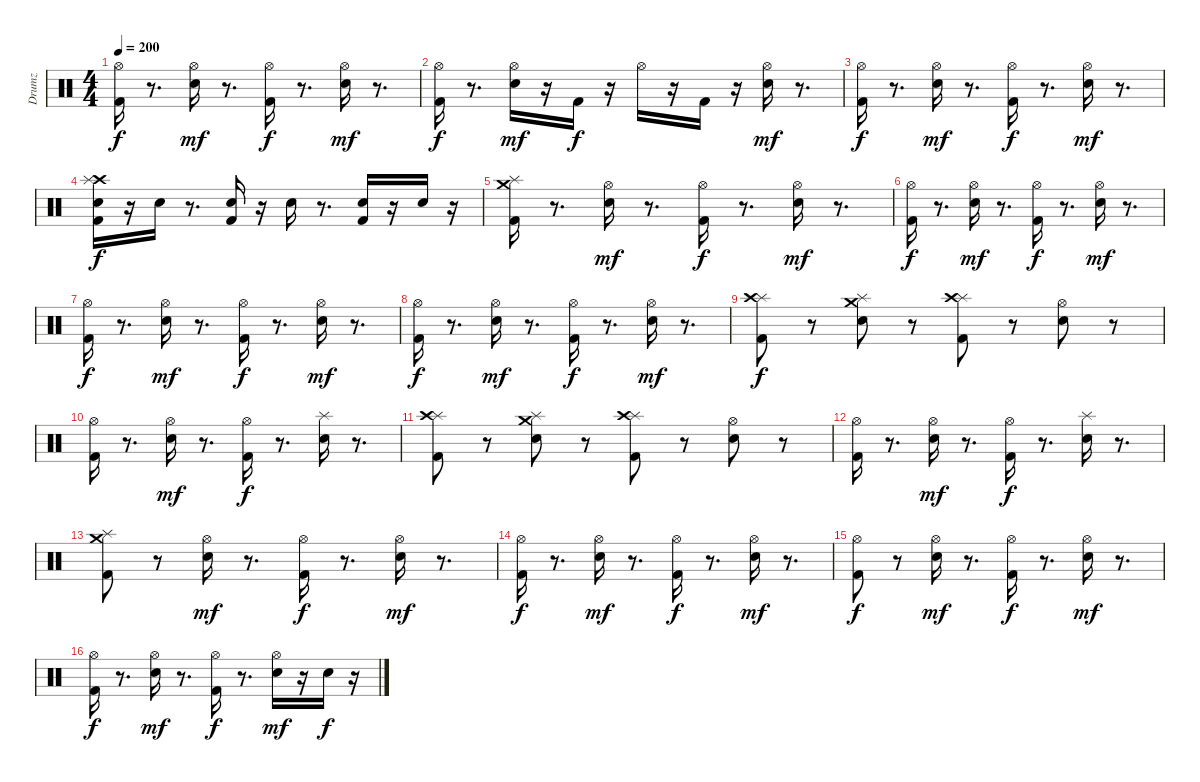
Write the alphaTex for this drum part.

\track ("Drumz" "Drumz") {instrument percussion}
\staff {score}
\articulation defaults
\ts (4 4)
\tempo 200
\clef neutral
\ks c
("Kick (hit) 2" "Hi-Hat (open)").16{dy f} r.8{d} ("Snare (hit) 2" "Hi-Hat (open)").16{dy mf} r.8{d} ("Hi-Hat (open)" "Kick (hit) 2").16{dy f} r.8{d} ("Snare (hit) 2" "Hi-Hat (open)").16{dy mf} r.8{d} |
("Kick (hit) 2" "Hi-Hat (open)").16{dy f} r.8{d} ("Snare (hit) 2" "Hi-Hat (open)").16{dy mf} r.16 "Kick (hit) 2".16{dy f} r.16 "Hi-Hat (open)".16 r.16 "Kick (hit) 2".16 r.16 ("Snare (hit) 2" "Hi-Hat (open)").16{dy mf} r.8{d} |
("Kick (hit) 2" "Hi-Hat (open)").16{dy f} r.8{d} ("Snare (hit) 2" "Hi-Hat (open)").16{dy mf} r.8{d} ("Hi-Hat (open)" "Kick (hit) 2").16{dy f} r.8{d} ("Snare (hit) 2" "Hi-Hat (open)").16{dy mf} r.8{d} |
("Snare (hit) 2" "Kick (hit) 2" "Crash high (hit)" "Splash (hit)").16{dy f} r.16 "Snare (hit) 2".16 r.8{d} ("Snare (hit) 2" "Kick (hit) 2").16 r.16 "Snare (hit) 2".16 r.8{d} ("Snare (hit) 2" "Kick (hit) 2").16 r.16 "Snare (hit) 2".16 r.16 |
("Kick (hit) 2" "Splash (hit)" "Crash medium (hit)").16 r.8{d} ("Snare (hit) 2" "Hi-Hat (open)").16{dy mf} r.8{d} ("Hi-Hat (open)" "Kick (hit) 2").16{dy f} r.8{d} ("Snare (hit) 2" "Hi-Hat (open)").16{dy mf} r.8{d} |
("Kick (hit) 2" "Hi-Hat (open)").16{dy f} r.8{d} ("Snare (hit) 2" "Hi-Hat (open)").16{dy mf} r.8{d} ("Hi-Hat (open)" "Kick (hit) 2").16{dy f} r.8{d} ("Snare (hit) 2" "Hi-Hat (open)").16{dy mf} r.8{d} |
("Kick (hit) 2" "Hi-Hat (open)").16{dy f} r.8{d} ("Snare (hit) 2" "Hi-Hat (open)").16{dy mf} r.8{d} ("Hi-Hat (open)" "Kick (hit) 2").16{dy f} r.8{d} ("Snare (hit) 2" "Hi-Hat (open)").16{dy mf} r.8{d} |
("Kick (hit) 2" "Hi-Hat (open)").16{dy f} r.8{d} ("Snare (hit) 2" "Hi-Hat (open)").16{dy mf} r.8{d} ("Hi-Hat (open)" "Kick (hit) 2").16{dy f} r.8{d} ("Snare (hit) 2" "Hi-Hat (open)").16{dy mf} r.8{d} |
("Kick (hit) 2" "Splash (hit)" "Crash high (hit)").8{dy f} r.8 ("Snare (hit) 2" "Crash medium (hit)" "Splash (hit)").8 r.8 ("Kick (hit) 2" "Splash (hit)" "Crash high (hit)").8 r.8 ("Snare (hit) 2" "Hi-Hat (open)").8 r.8 |
("Kick (hit) 2" "Hi-Hat (open)").16 r.8{d} ("Snare (hit) 2" "Hi-Hat (open)").16{dy mf} r.8{d} ("Kick (hit) 2" "Hi-Hat (open)").16{dy f} r.8{d} ("Splash (hit)" "Snare (hit) 2").16 r.8{d} |
("Kick (hit) 2" "Splash (hit)" "Crash high (hit)").8 r.8 ("Snare (hit) 2" "Crash medium (hit)" "Splash (hit)").8 r.8 ("Kick (hit) 2" "Splash (hit)" "Crash high (hit)").8 r.8 ("Snare (hit) 2" "Hi-Hat (open)").8 r.8 |
("Kick (hit) 2" "Hi-Hat (open)").16 r.8{d} ("Snare (hit) 2" "Hi-Hat (open)").16{dy mf} r.8{d} ("Kick (hit) 2" "Hi-Hat (open)").16{dy f} r.8{d} ("Splash (hit)" "Snare (hit) 2").16 r.8{d} |
("Kick (hit) 2" "Splash (hit)" "Crash medium (hit)").8 r.8 ("Snare (hit) 2" "Hi-Hat (open)").16{dy mf} r.8{d} ("Hi-Hat (open)" "Kick (hit) 2").16{dy f} r.8{d} ("Snare (hit) 2" "Hi-Hat (open)").16{dy mf} r.8{d} |
("Kick (hit) 2" "Hi-Hat (open)").16{dy f} r.8{d} ("Snare (hit) 2" "Hi-Hat (open)").16{dy mf} r.8{d} ("Hi-Hat (open)" "Kick (hit) 2").16{dy f} r.8{d} ("Snare (hit) 2" "Hi-Hat (open)").16{dy mf} r.8{d} |
("Kick (hit) 2" "Hi-Hat (open)").8{dy f} r.8 ("Snare (hit) 2" "Hi-Hat (open)").16{dy mf} r.8{d} ("Hi-Hat (open)" "Kick (hit) 2").16{dy f} r.8{d} ("Snare (hit) 2" "Hi-Hat (open)").16{dy mf} r.8{d} |
("Kick (hit) 2" "Hi-Hat (open)").16{dy f} r.8{d} ("Snare (hit) 2" "Hi-Hat (open)").16{dy mf} r.8{d} ("Hi-Hat (open)" "Kick (hit) 2").16{dy f} r.8{d} ("Snare (hit) 2" "Hi-Hat (open)").16{dy mf} r.16 "Snare (hit) 2".16{dy f} r.16
